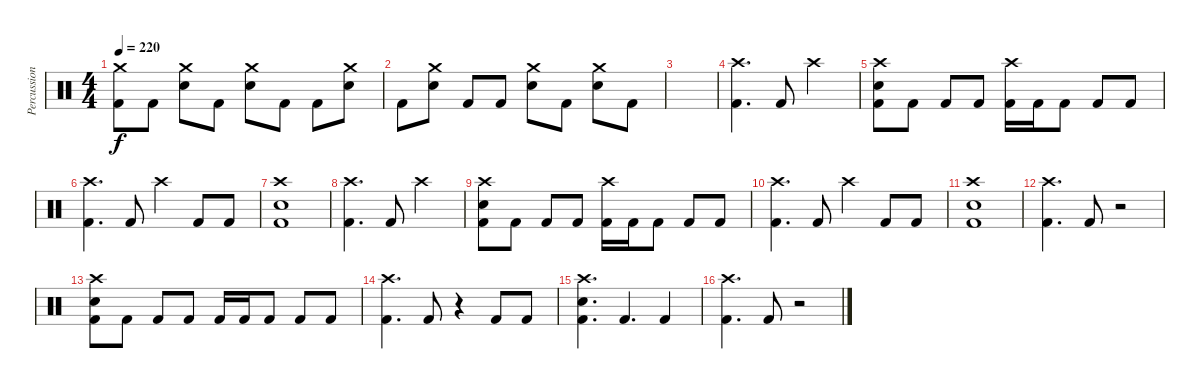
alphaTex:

\track ("Percussions" "Percussion") {instrument percussion}
\staff {score}
\articulation defaults
\ts (4 4)
\tempo 220
\clef neutral
\ks c
("Crash medium (hit)" "Kick (hit) 2").8{dy f} "Kick (hit) 2".8 ("Crash medium (hit)" "Electric Snare (hit)").8 "Kick (hit) 2".8 ("Crash medium (hit)" "Electric Snare (hit)").8 "Kick (hit) 2".8 "Kick (hit) 2".8 ("Crash medium (hit)" "Electric Snare (hit)").8 |
"Kick (hit) 2".8 ("Crash medium (hit)" "Electric Snare (hit)").8 "Kick (hit) 2".8 "Kick (hit) 2".8 ("Crash medium (hit)" "Electric Snare (hit)").8 "Kick (hit) 2".8 ("Crash medium (hit)" "Electric Snare (hit)").8 "Kick (hit) 2".8 |
|
("Crash high (hit)" "Kick (hit) 2").4{d} "Kick (hit) 2".8 "Crash high (hit)".2 |
("Crash high (hit)" "Electric Snare (hit)" "Kick (hit) 2").8 "Kick (hit) 2".8 "Kick (hit) 2".8 "Kick (hit) 2".8 ("Crash high (hit)" "Kick (hit) 2").16 "Kick (hit) 2".16 "Kick (hit) 2".8 "Kick (hit) 2".8 "Kick (hit) 2".8 |
("Crash high (hit)" "Kick (hit) 2").4{d} "Kick (hit) 2".8 "Crash high (hit)".4 "Kick (hit) 2".8 "Kick (hit) 2".8 |
("Crash high (hit)" "Electric Snare (hit)" "Kick (hit) 2").1 |
("Crash high (hit)" "Kick (hit) 2").4{d} "Kick (hit) 2".8 "Crash high (hit)".2 |
("Crash high (hit)" "Electric Snare (hit)" "Kick (hit) 2").8 "Kick (hit) 2".8 "Kick (hit) 2".8 "Kick (hit) 2".8 ("Crash high (hit)" "Kick (hit) 2").16 "Kick (hit) 2".16 "Kick (hit) 2".8 "Kick (hit) 2".8 "Kick (hit) 2".8 |
("Crash high (hit)" "Kick (hit) 2").4{d} "Kick (hit) 2".8 "Crash high (hit)".4 "Kick (hit) 2".8 "Kick (hit) 2".8 |
("Crash high (hit)" "Electric Snare (hit)" "Kick (hit) 2").1 |
("Crash high (hit)" "Kick (hit) 2").4{d} "Kick (hit) 2".8 r.2 |
("Crash high (hit)" "Electric Snare (hit)" "Kick (hit) 2").8 "Kick (hit) 2".8 "Kick (hit) 2".8 "Kick (hit) 2".8 "Kick (hit) 2".16 "Kick (hit) 2".16 "Kick (hit) 2".8 "Kick (hit) 2".8 "Kick (hit) 2".8 |
("Crash high (hit)" "Kick (hit) 2").4{d} "Kick (hit) 2".8 r.4 "Kick (hit) 2".8 "Kick (hit) 2".8 |
("Crash high (hit)" "Electric Snare (hit)" "Kick (hit) 2").4{d} "Kick (hit) 2".4{d} "Kick (hit) 2".4 |
("Crash high (hit)" "Kick (hit) 2").4{d} "Kick (hit) 2".8 r.2
